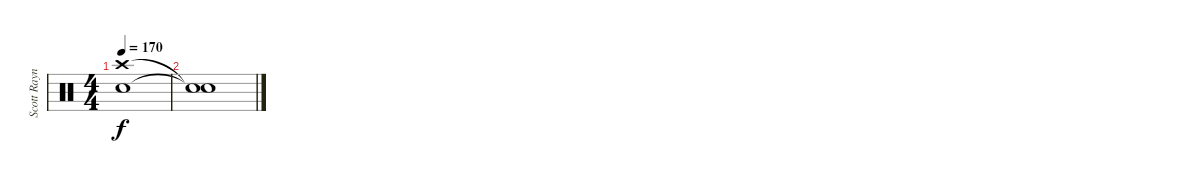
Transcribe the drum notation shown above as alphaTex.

\track ("Scott Raynor" "Scott Rayn") {instrument percussion}
\staff {score}
\articulation defaults
\ts (4 4)
\tempo 170
\clef neutral
\ks c
("Crash high (hit)" "Snare (hit) 2").1{dy f} |
("Snare (hit)"{t} "Snare (hit)"{t}).1
